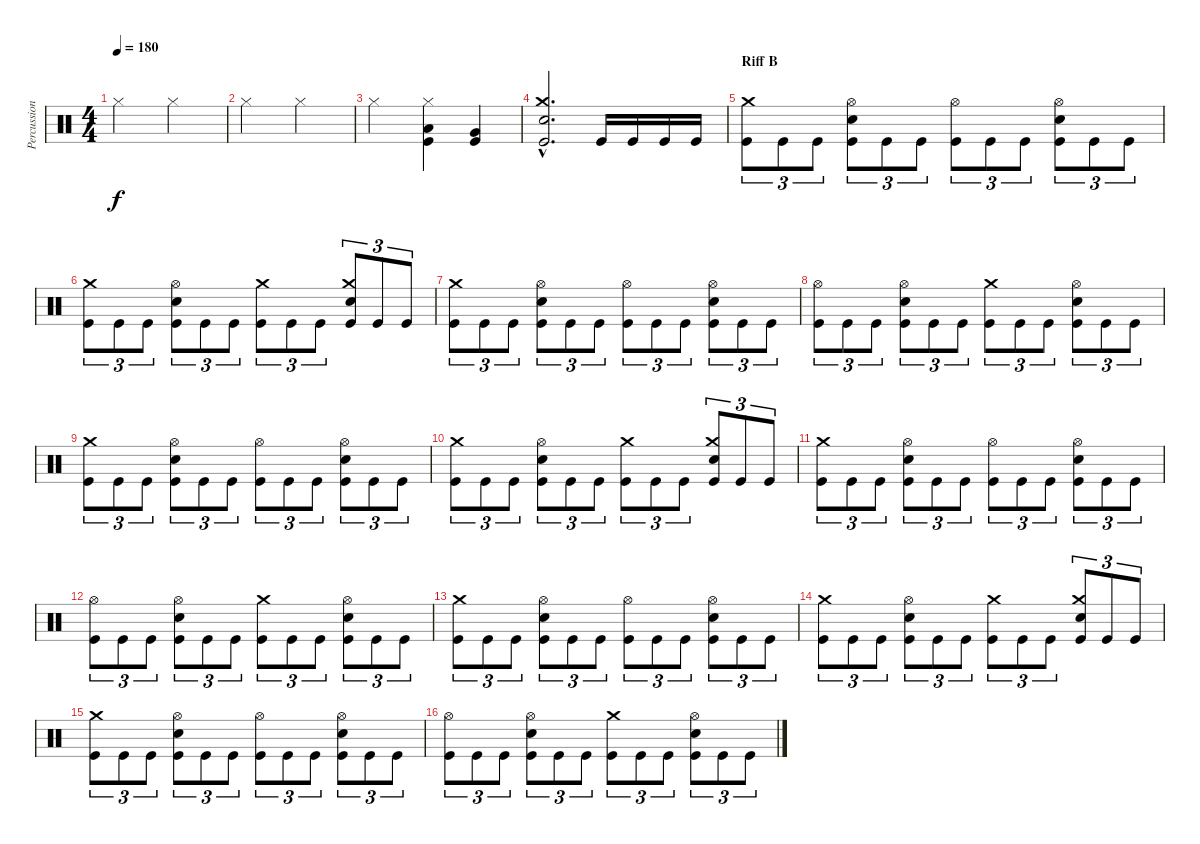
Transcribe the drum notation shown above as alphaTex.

\track ("Percussion" "Percussion") {instrument percussion}
\staff {score}
\articulation defaults
\ts (4 4)
\tempo 180
\clef neutral
\ks c "Hi-Hat (closed)".2{dy f} "Hi-Hat (closed)".2
|
"Hi-Hat (closed)".2 "Hi-Hat (closed)".2 |
"Hi-Hat (closed)".2 ("Hi-Hat (closed)" "Low Tom (hit)" "Kick (hit)").4 ("Very Low Tom (hit)" "Kick (hit)").4 |
("Crash medium (hit)"{hac} "Snare (hit) 2"{hac} "Kick (hit)"{hac}).2{d} "Kick (hit)".16 "Kick (hit)".16 "Kick (hit)".16 "Kick (hit)".16 |
\section ("" "Riff B")
("Crash medium (hit)" "Kick (hit)").8{tu (3 2)} "Kick (hit)".8{tu (3 2)} "Kick (hit)".8{tu (3 2)} ("Hi-Hat (open)" "Snare (hit) 2" "Kick (hit)").8{tu (3 2)} "Kick (hit)".8{tu (3 2)} "Kick (hit)".8{tu (3 2)} ("Hi-Hat (open)" "Kick (hit)").8{tu (3 2)} "Kick (hit)".8{tu (3 2)} "Kick (hit)".8{tu (3 2)} ("Hi-Hat (open)" "Snare (hit) 2" "Kick (hit)").8{tu (3 2)} "Kick (hit)".8{tu (3 2)} "Kick (hit)".8{tu (3 2)} |
("Crash medium (hit)" "Kick (hit)").8{tu (3 2)} "Kick (hit)".8{tu (3 2)} "Kick (hit)".8{tu (3 2)} ("Hi-Hat (open)" "Snare (hit) 2" "Kick (hit)").8{tu (3 2)} "Kick (hit)".8{tu (3 2)} "Kick (hit)".8{tu (3 2)} ("Crash medium (hit)" "Kick (hit)").8{tu (3 2)} "Kick (hit)".8{tu (3 2)} "Kick (hit)".8{tu (3 2)} ("Crash medium (hit)" "Snare (hit) 2" "Kick (hit)").8{tu (3 2)} "Kick (hit)".8{tu (3 2)} "Kick (hit)".8{tu (3 2)} |
("Crash medium (hit)" "Kick (hit)").8{tu (3 2)} "Kick (hit)".8{tu (3 2)} "Kick (hit)".8{tu (3 2)} ("Hi-Hat (open)" "Snare (hit) 2" "Kick (hit)").8{tu (3 2)} "Kick (hit)".8{tu (3 2)} "Kick (hit)".8{tu (3 2)} ("Hi-Hat (open)" "Kick (hit)").8{tu (3 2)} "Kick (hit)".8{tu (3 2)} "Kick (hit)".8{tu (3 2)} ("Hi-Hat (open)" "Snare (hit) 2" "Kick (hit)").8{tu (3 2)} "Kick (hit)".8{tu (3 2)} "Kick (hit)".8{tu (3 2)} |
("Hi-Hat (open)" "Kick (hit)").8{tu (3 2)} "Kick (hit)".8{tu (3 2)} "Kick (hit)".8{tu (3 2)} ("Hi-Hat (open)" "Snare (hit) 2" "Kick (hit)").8{tu (3 2)} "Kick (hit)".8{tu (3 2)} "Kick (hit)".8{tu (3 2)} ("Crash medium (hit)" "Kick (hit)").8{tu (3 2)} "Kick (hit)".8{tu (3 2)} "Kick (hit)".8{tu (3 2)} ("Hi-Hat (open)" "Snare (hit) 2" "Kick (hit)").8{tu (3 2)} "Kick (hit)".8{tu (3 2)} "Kick (hit)".8{tu (3 2)} |
("Crash medium (hit)" "Kick (hit)").8{tu (3 2)} "Kick (hit)".8{tu (3 2)} "Kick (hit)".8{tu (3 2)} ("Hi-Hat (open)" "Snare (hit) 2" "Kick (hit)").8{tu (3 2)} "Kick (hit)".8{tu (3 2)} "Kick (hit)".8{tu (3 2)} ("Hi-Hat (open)" "Kick (hit)").8{tu (3 2)} "Kick (hit)".8{tu (3 2)} "Kick (hit)".8{tu (3 2)} ("Hi-Hat (open)" "Snare (hit) 2" "Kick (hit)").8{tu (3 2)} "Kick (hit)".8{tu (3 2)} "Kick (hit)".8{tu (3 2)} |
("Crash medium (hit)" "Kick (hit)").8{tu (3 2)} "Kick (hit)".8{tu (3 2)} "Kick (hit)".8{tu (3 2)} ("Hi-Hat (open)" "Snare (hit) 2" "Kick (hit)").8{tu (3 2)} "Kick (hit)".8{tu (3 2)} "Kick (hit)".8{tu (3 2)} ("Crash medium (hit)" "Kick (hit)").8{tu (3 2)} "Kick (hit)".8{tu (3 2)} "Kick (hit)".8{tu (3 2)} ("Crash medium (hit)" "Snare (hit) 2" "Kick (hit)").8{tu (3 2)} "Kick (hit)".8{tu (3 2)} "Kick (hit)".8{tu (3 2)} |
("Crash medium (hit)" "Kick (hit)").8{tu (3 2)} "Kick (hit)".8{tu (3 2)} "Kick (hit)".8{tu (3 2)} ("Hi-Hat (open)" "Snare (hit) 2" "Kick (hit)").8{tu (3 2)} "Kick (hit)".8{tu (3 2)} "Kick (hit)".8{tu (3 2)} ("Hi-Hat (open)" "Kick (hit)").8{tu (3 2)} "Kick (hit)".8{tu (3 2)} "Kick (hit)".8{tu (3 2)} ("Hi-Hat (open)" "Snare (hit) 2" "Kick (hit)").8{tu (3 2)} "Kick (hit)".8{tu (3 2)} "Kick (hit)".8{tu (3 2)} |
("Hi-Hat (open)" "Kick (hit)").8{tu (3 2)} "Kick (hit)".8{tu (3 2)} "Kick (hit)".8{tu (3 2)} ("Hi-Hat (open)" "Snare (hit) 2" "Kick (hit)").8{tu (3 2)} "Kick (hit)".8{tu (3 2)} "Kick (hit)".8{tu (3 2)} ("Crash medium (hit)" "Kick (hit)").8{tu (3 2)} "Kick (hit)".8{tu (3 2)} "Kick (hit)".8{tu (3 2)} ("Hi-Hat (open)" "Snare (hit) 2" "Kick (hit)").8{tu (3 2)} "Kick (hit)".8{tu (3 2)} "Kick (hit)".8{tu (3 2)} |
("Crash medium (hit)" "Kick (hit)").8{tu (3 2)} "Kick (hit)".8{tu (3 2)} "Kick (hit)".8{tu (3 2)} ("Hi-Hat (open)" "Snare (hit) 2" "Kick (hit)").8{tu (3 2)} "Kick (hit)".8{tu (3 2)} "Kick (hit)".8{tu (3 2)} ("Hi-Hat (open)" "Kick (hit)").8{tu (3 2)} "Kick (hit)".8{tu (3 2)} "Kick (hit)".8{tu (3 2)} ("Hi-Hat (open)" "Snare (hit) 2" "Kick (hit)").8{tu (3 2)} "Kick (hit)".8{tu (3 2)} "Kick (hit)".8{tu (3 2)} |
("Crash medium (hit)" "Kick (hit)").8{tu (3 2)} "Kick (hit)".8{tu (3 2)} "Kick (hit)".8{tu (3 2)} ("Hi-Hat (open)" "Snare (hit) 2" "Kick (hit)").8{tu (3 2)} "Kick (hit)".8{tu (3 2)} "Kick (hit)".8{tu (3 2)} ("Crash medium (hit)" "Kick (hit)").8{tu (3 2)} "Kick (hit)".8{tu (3 2)} "Kick (hit)".8{tu (3 2)} ("Crash medium (hit)" "Snare (hit) 2" "Kick (hit)").8{tu (3 2)} "Kick (hit)".8{tu (3 2)} "Kick (hit)".8{tu (3 2)} |
("Crash medium (hit)" "Kick (hit)").8{tu (3 2)} "Kick (hit)".8{tu (3 2)} "Kick (hit)".8{tu (3 2)} ("Hi-Hat (open)" "Snare (hit) 2" "Kick (hit)").8{tu (3 2)} "Kick (hit)".8{tu (3 2)} "Kick (hit)".8{tu (3 2)} ("Hi-Hat (open)" "Kick (hit)").8{tu (3 2)} "Kick (hit)".8{tu (3 2)} "Kick (hit)".8{tu (3 2)} ("Hi-Hat (open)" "Snare (hit) 2" "Kick (hit)").8{tu (3 2)} "Kick (hit)".8{tu (3 2)} "Kick (hit)".8{tu (3 2)} |
("Hi-Hat (open)" "Kick (hit)").8{tu (3 2)} "Kick (hit)".8{tu (3 2)} "Kick (hit)".8{tu (3 2)} ("Hi-Hat (open)" "Snare (hit) 2" "Kick (hit)").8{tu (3 2)} "Kick (hit)".8{tu (3 2)} "Kick (hit)".8{tu (3 2)} ("Crash medium (hit)" "Kick (hit)").8{tu (3 2)} "Kick (hit)".8{tu (3 2)} "Kick (hit)".8{tu (3 2)} ("Hi-Hat (open)" "Snare (hit) 2" "Kick (hit)").8{tu (3 2)} "Kick (hit)".8{tu (3 2)} "Kick (hit)".8{tu (3 2)}
